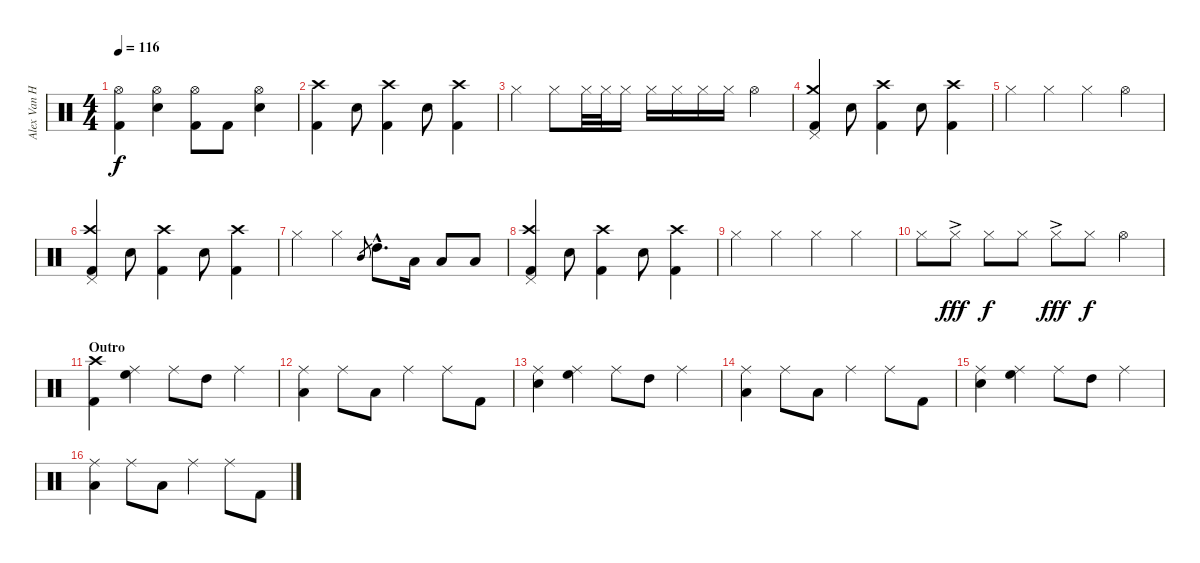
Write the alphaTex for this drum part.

\track ("Alex Van Halen" "Alex Van H") {instrument percussion}
\staff {score}
\articulation defaults
\ts (4 4)
\tempo 116
\clef neutral
\ks c
("Hi-Hat (open)" "Kick (hit) 2").4{dy f} ("Hi-Hat (open)" "Electric Snare (hit)").4 ("Hi-Hat (open)" "Kick (hit) 2").8 "Kick (hit) 2".8 ("Hi-Hat (open)" "Electric Snare (hit)").4 |
("Crash high (hit)" "Kick (hit) 2").4 "Electric Snare (hit)".8 ("Crash high (hit)" "Kick (hit) 2").4 "Electric Snare (hit)".8 ("Crash high (hit)" "Kick (hit) 2").4 |
"Hi-Hat (closed)".4 "Hi-Hat (closed)".8 "Hi-Hat (closed)".32 "Hi-Hat (closed)".32 "Hi-Hat (closed)".16 "Hi-Hat (closed)".16 "Hi-Hat (closed)".16 "Hi-Hat (closed)".16 "Hi-Hat (closed)".16 "Hi-Hat (open)".4 |
("Crash medium (hit)" "Kick (hit) 2" "Pedal Hi-Hat (hit)").4 "Electric Snare (hit)".8 ("Crash high (hit)" "Kick (hit) 2").4 "Electric Snare (hit)".8 ("Crash high (hit)" "Kick (hit) 2").4 |
"Hi-Hat (closed)".4 "Hi-Hat (closed)".4 "Hi-Hat (closed)".4 "Hi-Hat (open)".4 |
("Crash high (hit)" "Kick (hit) 2" "Pedal Hi-Hat (hit)").4 "Electric Snare (hit)".8 ("Crash high (hit)" "Kick (hit) 2").4 "Electric Snare (hit)".8 ("Crash high (hit)" "Kick (hit) 2").4 |
"Hi-Hat (closed)".4 "Hi-Hat (closed)".4 "Mid Tom (hit)".8{gr} "High Tom (hit)"{hac}.8{d} "Low Tom (hit)".16 "Low Tom (hit)".8 "Low Tom (hit)".8 |
("Crash high (hit)" "Kick (hit) 2" "Pedal Hi-Hat (hit)").4 "Electric Snare (hit)".8 ("Crash high (hit)" "Kick (hit) 2").4 "Electric Snare (hit)".8 ("Crash high (hit)" "Kick (hit) 2").4 |
"Hi-Hat (closed)".4 "Hi-Hat (closed)".4 "Hi-Hat (closed)".4 "Hi-Hat (closed)".4 |
"Hi-Hat (closed)".8 "Hi-Hat (closed)"{ac}.8{dy fff} "Hi-Hat (closed)".8{dy f} "Hi-Hat (closed)".8 "Hi-Hat (closed)"{ac}.8{dy fff} "Hi-Hat (closed)".8{dy f} "Hi-Hat (open)".4 |
\section ("" "Outro")
("Crash high (hit)" "Kick (hit) 2").4 ("Ride (middle)" "High Floor Tom (hit)").4 "Ride (middle)".8 "High Tom (hit)".8 "Ride (middle)".4 |
("Ride (middle)" "Low Tom (hit)").4 "Ride (middle)".8 "Low Floor Tom (hit)".8 "Ride (middle)".4 "Ride (middle)".8 "Kick (hit) 2".8 |
("Ride (middle)" "Electric Snare (hit)").4 ("Ride (middle)" "High Floor Tom (hit)").4 "Ride (middle)".8 "High Tom (hit)".8 "Ride (middle)".4 |
("Ride (middle)" "Low Tom (hit)").4 "Ride (middle)".8 "Low Floor Tom (hit)".8 "Ride (middle)".4 "Ride (middle)".8 "Kick (hit) 2".8 |
("Ride (middle)" "Electric Snare (hit)").4 ("Ride (middle)" "High Floor Tom (hit)").4 "Ride (middle)".8 "High Tom (hit)".8 "Ride (middle)".4 |
("Ride (middle)" "Low Tom (hit)").4 "Ride (middle)".8 "Low Floor Tom (hit)".8 "Ride (middle)".4 "Ride (middle)".8 "Kick (hit) 2".8
